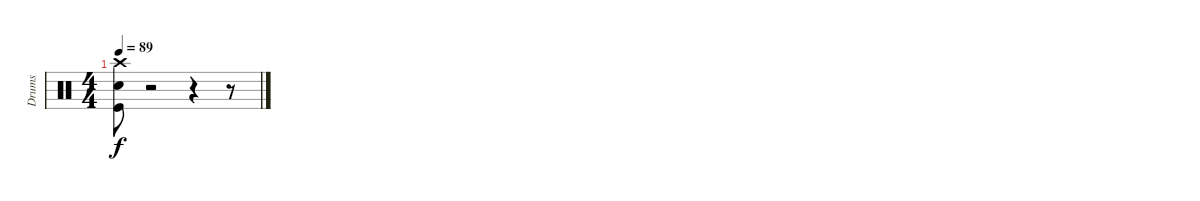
\track ("Drums" "Drums") {instrument percussion}
\staff {score}
\articulation defaults
\ts (4 4)
\tempo 89
\clef neutral
\ks c
("Crash high (hit)" "Snare (hit) 2" "Kick (hit)").8{dy f} r.2 r.4 r.8
